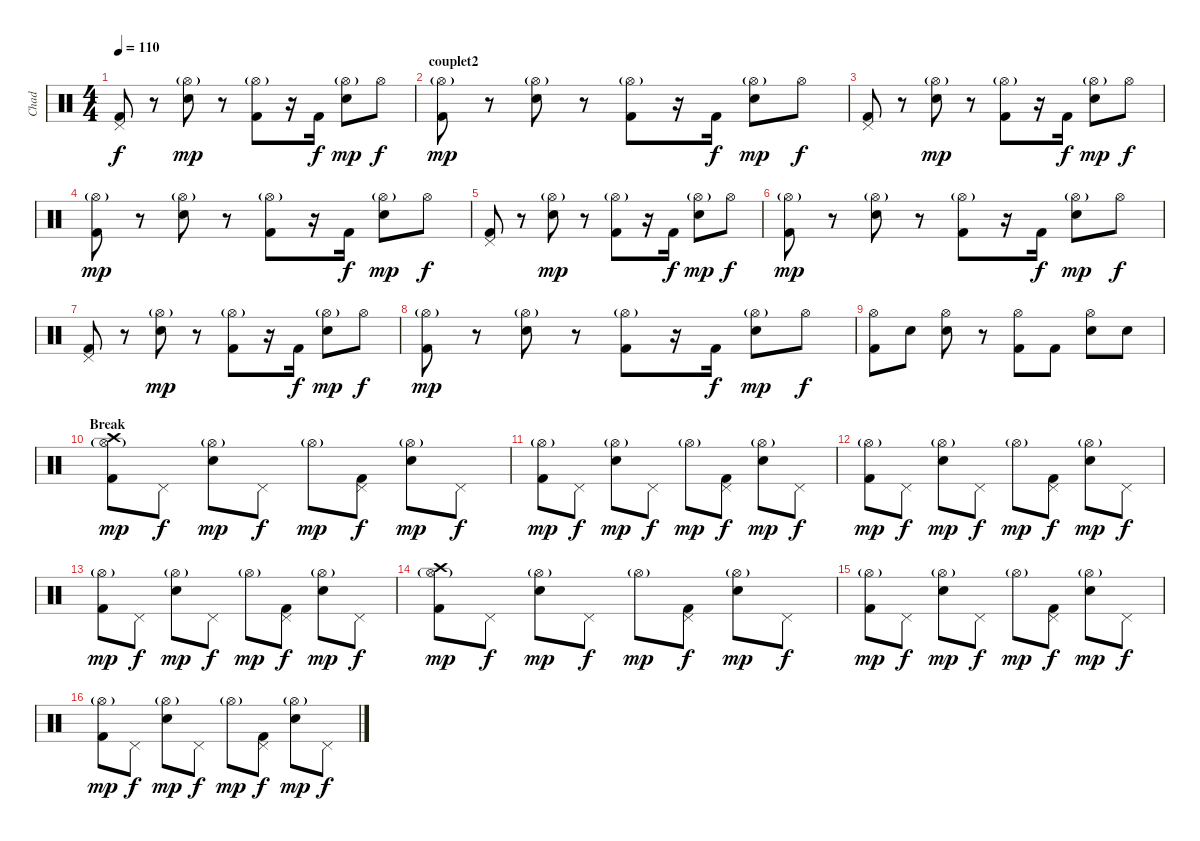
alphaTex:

\track ("Chad" "Chad") {instrument percussion}
\staff {score}
\articulation defaults
\ts (4 4)
\tempo 110
\clef neutral
\ks c
("Pedal Hi-Hat (hit)" "Kick (hit) 2").8{dy f} r.8 ("Hi-Hat (open)"{g} "Electric Snare (hit)").8{dy mp} r.8 ("Hi-Hat (open)"{g} "Kick (hit) 2").8 r.16 "Kick (hit) 2".16{dy f} ("Hi-Hat (open)"{g} "Electric Snare (hit)").8{dy mp} "Hi-Hat (open)".8{dy f} |
\section ("" "couplet2")
("Hi-Hat (open)"{g} "Kick (hit) 2").8{dy mp} r.8 ("Hi-Hat (open)"{g} "Electric Snare (hit)").8 r.8 ("Hi-Hat (open)"{g} "Kick (hit) 2").8 r.16 "Kick (hit) 2".16{dy f} ("Hi-Hat (open)"{g} "Electric Snare (hit)").8{dy mp} "Hi-Hat (open)".8{dy f} |
("Pedal Hi-Hat (hit)" "Kick (hit) 2").8 r.8 ("Hi-Hat (open)"{g} "Electric Snare (hit)").8{dy mp} r.8 ("Hi-Hat (open)"{g} "Kick (hit) 2").8 r.16 "Kick (hit) 2".16{dy f} ("Hi-Hat (open)"{g} "Electric Snare (hit)").8{dy mp} "Hi-Hat (open)".8{dy f} |
("Hi-Hat (open)"{g} "Kick (hit) 2").8{dy mp} r.8 ("Hi-Hat (open)"{g} "Electric Snare (hit)").8 r.8 ("Hi-Hat (open)"{g} "Kick (hit) 2").8 r.16 "Kick (hit) 2".16{dy f} ("Hi-Hat (open)"{g} "Electric Snare (hit)").8{dy mp} "Hi-Hat (open)".8{dy f} |
("Pedal Hi-Hat (hit)" "Kick (hit) 2").8 r.8 ("Hi-Hat (open)"{g} "Electric Snare (hit)").8{dy mp} r.8 ("Hi-Hat (open)"{g} "Kick (hit) 2").8 r.16 "Kick (hit) 2".16{dy f} ("Hi-Hat (open)"{g} "Electric Snare (hit)").8{dy mp} "Hi-Hat (open)".8{dy f} |
("Hi-Hat (open)"{g} "Kick (hit) 2").8{dy mp} r.8 ("Hi-Hat (open)"{g} "Electric Snare (hit)").8 r.8 ("Hi-Hat (open)"{g} "Kick (hit) 2").8 r.16 "Kick (hit) 2".16{dy f} ("Hi-Hat (open)"{g} "Electric Snare (hit)").8{dy mp} "Hi-Hat (open)".8{dy f} |
("Pedal Hi-Hat (hit)" "Kick (hit) 2").8 r.8 ("Hi-Hat (open)"{g} "Electric Snare (hit)").8{dy mp} r.8 ("Hi-Hat (open)"{g} "Kick (hit) 2").8 r.16 "Kick (hit) 2".16{dy f} ("Hi-Hat (open)"{g} "Electric Snare (hit)").8{dy mp} "Hi-Hat (open)".8{dy f} |
("Hi-Hat (open)"{g} "Kick (hit) 2").8{dy mp} r.8 ("Hi-Hat (open)"{g} "Electric Snare (hit)").8 r.8 ("Hi-Hat (open)"{g} "Kick (hit) 2").8 r.16 "Kick (hit) 2".16{dy f} ("Hi-Hat (open)"{g} "Electric Snare (hit)").8{dy mp} "Hi-Hat (open)".8{dy f} |
("Hi-Hat (open)" "Kick (hit) 2").8 "Electric Snare (hit)".8 ("Hi-Hat (open)" "Electric Snare (hit)").8 r.8 ("Hi-Hat (open)" "Kick (hit) 2").8 "Kick (hit) 2".8 ("Hi-Hat (open)" "Electric Snare (hit)").8 "Electric Snare (hit)".8 |
\section ("" "Break")
("Crash high (hit)" "Hi-Hat (open)"{g} "Kick (hit) 2").8{dy mp} "Pedal Hi-Hat (hit)".8{dy f} ("Hi-Hat (open)"{g} "Electric Snare (hit)").8{dy mp} "Pedal Hi-Hat (hit)".8{dy f} "Hi-Hat (open)"{g}.8{dy mp} ("Pedal Hi-Hat (hit)" "Kick (hit) 2").8{dy f} ("Hi-Hat (open)"{g} "Electric Snare (hit)").8{dy mp} "Pedal Hi-Hat (hit)".8{dy f} |
("Hi-Hat (open)"{g} "Kick (hit) 2").8{dy mp} "Pedal Hi-Hat (hit)".8{dy f} ("Hi-Hat (open)"{g} "Electric Snare (hit)").8{dy mp} "Pedal Hi-Hat (hit)".8{dy f} "Hi-Hat (open)"{g}.8{dy mp} ("Pedal Hi-Hat (hit)" "Kick (hit) 2").8{dy f} ("Hi-Hat (open)"{g} "Electric Snare (hit)").8{dy mp} "Pedal Hi-Hat (hit)".8{dy f} |
("Hi-Hat (open)"{g} "Kick (hit) 2").8{dy mp} "Pedal Hi-Hat (hit)".8{dy f} ("Hi-Hat (open)"{g} "Electric Snare (hit)").8{dy mp} "Pedal Hi-Hat (hit)".8{dy f} "Hi-Hat (open)"{g}.8{dy mp} ("Pedal Hi-Hat (hit)" "Kick (hit) 2").8{dy f} ("Hi-Hat (open)"{g} "Electric Snare (hit)").8{dy mp} "Pedal Hi-Hat (hit)".8{dy f} |
("Hi-Hat (open)"{g} "Kick (hit) 2").8{dy mp} "Pedal Hi-Hat (hit)".8{dy f} ("Hi-Hat (open)"{g} "Electric Snare (hit)").8{dy mp} "Pedal Hi-Hat (hit)".8{dy f} "Hi-Hat (open)"{g}.8{dy mp} ("Pedal Hi-Hat (hit)" "Kick (hit) 2").8{dy f} ("Hi-Hat (open)"{g} "Electric Snare (hit)").8{dy mp} "Pedal Hi-Hat (hit)".8{dy f} |
("Crash high (hit)" "Hi-Hat (open)"{g} "Kick (hit) 2").8{dy mp} "Pedal Hi-Hat (hit)".8{dy f} ("Hi-Hat (open)"{g} "Electric Snare (hit)").8{dy mp} "Pedal Hi-Hat (hit)".8{dy f} "Hi-Hat (open)"{g}.8{dy mp} ("Pedal Hi-Hat (hit)" "Kick (hit) 2").8{dy f} ("Hi-Hat (open)"{g} "Electric Snare (hit)").8{dy mp} "Pedal Hi-Hat (hit)".8{dy f} |
("Hi-Hat (open)"{g} "Kick (hit) 2").8{dy mp} "Pedal Hi-Hat (hit)".8{dy f} ("Hi-Hat (open)"{g} "Electric Snare (hit)").8{dy mp} "Pedal Hi-Hat (hit)".8{dy f} "Hi-Hat (open)"{g}.8{dy mp} ("Pedal Hi-Hat (hit)" "Kick (hit) 2").8{dy f} ("Hi-Hat (open)"{g} "Electric Snare (hit)").8{dy mp} "Pedal Hi-Hat (hit)".8{dy f} |
("Hi-Hat (open)"{g} "Kick (hit) 2").8{dy mp} "Pedal Hi-Hat (hit)".8{dy f} ("Hi-Hat (open)"{g} "Electric Snare (hit)").8{dy mp} "Pedal Hi-Hat (hit)".8{dy f} "Hi-Hat (open)"{g}.8{dy mp} ("Pedal Hi-Hat (hit)" "Kick (hit) 2").8{dy f} ("Hi-Hat (open)"{g} "Electric Snare (hit)").8{dy mp} "Pedal Hi-Hat (hit)".8{dy f}
